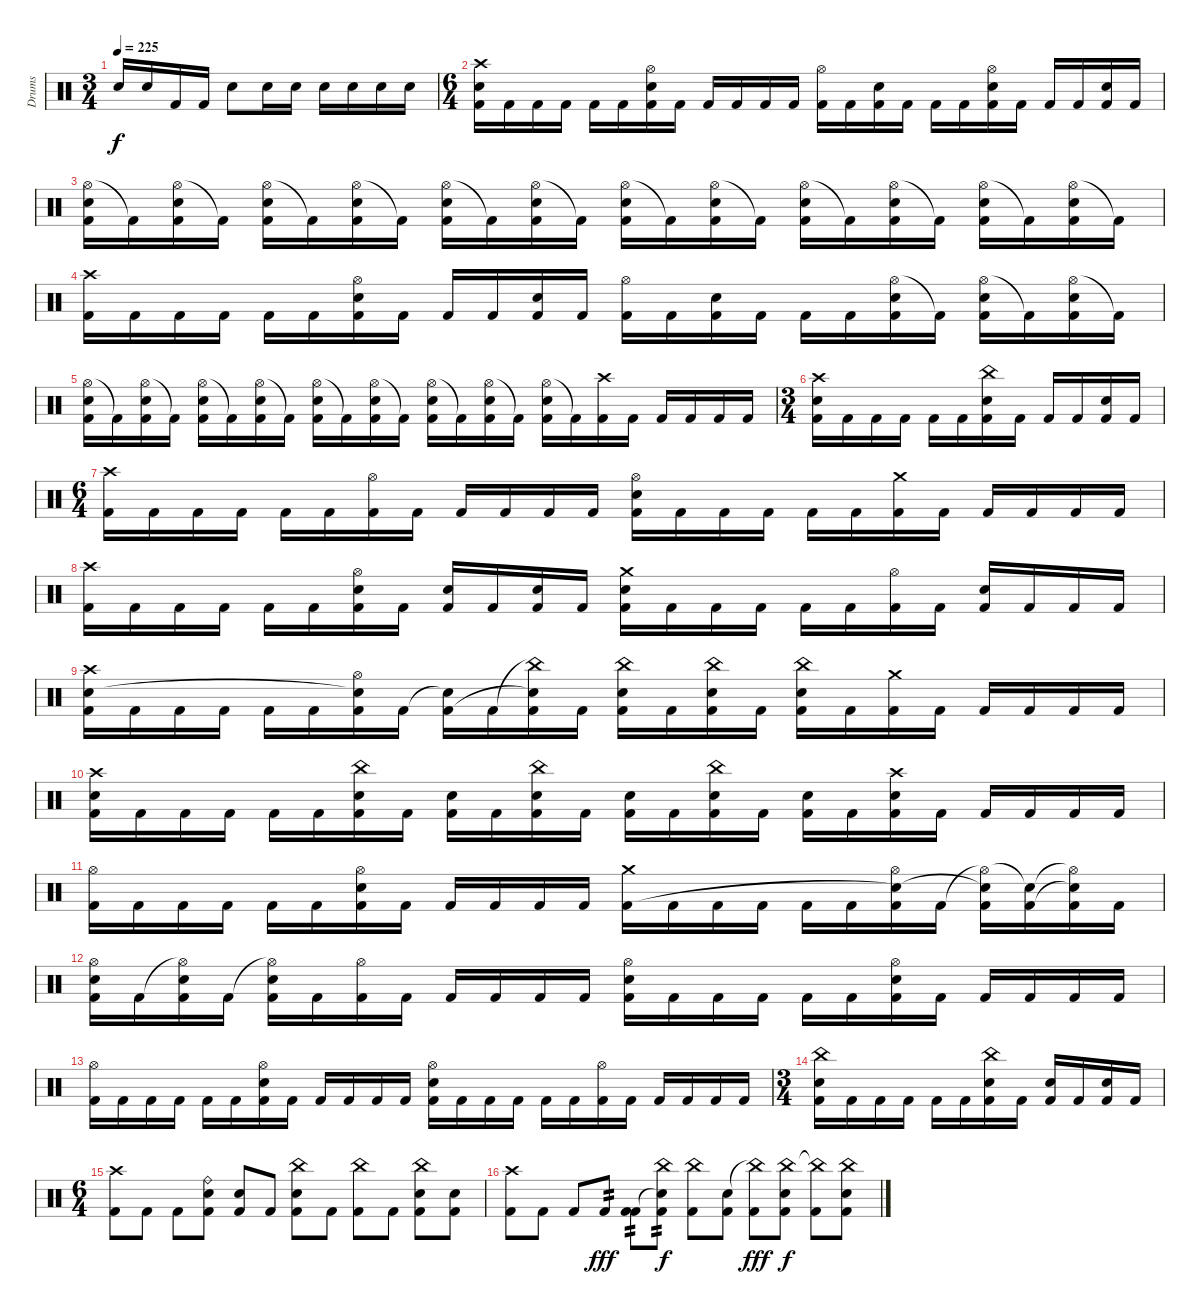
\track ("Drums" "Drums") {instrument percussion}
\staff {score}
\articulation defaults
\ts (3 4)
\tempo 225
\clef neutral
\ks c "Snare (hit) 2".16{dy f} "Snare (hit) 2".16 "Kick (hit) 2".16 "Kick (hit) 2".16 "Snare (hit) 2".8 "Snare (hit) 2".16 "Snare (hit) 2".16 "Snare (hit) 2".16 "Snare (hit) 2".16 "Snare (hit) 2".16 "Snare (hit) 2".16
|
\ts (6 4)
("Crash high (hit)" "Snare (hit) 2" "Kick (hit) 2").16 "Kick (hit) 2".16 "Kick (hit) 2".16 "Kick (hit) 2".16 "Kick (hit) 2".16 "Kick (hit) 2".16 ("Hi-Hat (open)" "Snare (hit) 2" "Kick (hit) 2").16 "Kick (hit) 2".16 "Kick (hit) 2".16 "Kick (hit) 2".16 "Kick (hit) 2".16 "Kick (hit) 2".16 ("Hi-Hat (open)" "Kick (hit) 2").16 "Kick (hit) 2".16 ("Snare (hit) 2" "Kick (hit) 2").16 "Kick (hit) 2".16 "Kick (hit) 2".16 "Kick (hit) 2".16 ("Hi-Hat (open)" "Snare (hit) 2" "Kick (hit) 2").16 "Kick (hit) 2".16 "Kick (hit) 2".16 "Kick (hit) 2".16 ("Snare (hit) 2" "Kick (hit) 2").16 "Kick (hit) 2".16 |
("Hi-Hat (open)" "Snare (hit) 2" "Kick (hit) 2").16 "Kick (hit) 2"{t}.16 ("Hi-Hat (open)" "Snare (hit) 2" "Kick (hit) 2").16 "Kick (hit) 2"{t}.16 ("Hi-Hat (open)" "Snare (hit) 2" "Kick (hit) 2").16 "Kick (hit) 2"{t}.16 ("Hi-Hat (open)" "Snare (hit) 2" "Kick (hit) 2").16 "Kick (hit) 2"{t}.16 ("Hi-Hat (open)" "Snare (hit) 2" "Kick (hit) 2").16 "Kick (hit) 2"{t}.16 ("Hi-Hat (open)" "Snare (hit) 2" "Kick (hit) 2").16 "Kick (hit) 2"{t}.16 ("Hi-Hat (open)" "Snare (hit) 2" "Kick (hit) 2").16 "Kick (hit) 2"{t}.16 ("Hi-Hat (open)" "Snare (hit) 2" "Kick (hit) 2").16 "Kick (hit) 2"{t}.16 ("Hi-Hat (open)" "Snare (hit) 2" "Kick (hit) 2").16 "Kick (hit) 2"{t}.16 ("Hi-Hat (open)" "Snare (hit) 2" "Kick (hit) 2").16 "Kick (hit) 2"{t}.16 ("Hi-Hat (open)" "Snare (hit) 2" "Kick (hit) 2").16 "Kick (hit) 2"{t}.16 ("Hi-Hat (open)" "Snare (hit) 2" "Kick (hit) 2").16 "Kick (hit) 2"{t}.16 |
("Crash high (hit)" "Kick (hit) 2").16 "Kick (hit) 2".16 "Kick (hit) 2".16 "Kick (hit) 2".16 "Kick (hit) 2".16 "Kick (hit) 2".16 ("Hi-Hat (open)" "Snare (hit) 2" "Kick (hit) 2").16 "Kick (hit) 2".16 "Kick (hit) 2".16 "Kick (hit) 2".16 ("Snare (hit) 2" "Kick (hit) 2").16 "Kick (hit) 2".16 ("Hi-Hat (open)" "Kick (hit) 2").16 "Kick (hit) 2".16 ("Snare (hit) 2" "Kick (hit) 2").16 "Kick (hit) 2".16 "Kick (hit) 2".16 "Kick (hit) 2".16 ("Hi-Hat (open)" "Snare (hit) 2" "Kick (hit) 2").16 "Kick (hit) 2"{t}.16 ("Hi-Hat (open)" "Snare (hit) 2" "Kick (hit) 2").16 "Kick (hit) 2"{t}.16 ("Hi-Hat (open)" "Snare (hit) 2" "Kick (hit) 2").16 "Kick (hit) 2"{t}.16 |
("Hi-Hat (open)" "Snare (hit) 2" "Kick (hit) 2").16 "Kick (hit) 2"{t}.16 ("Hi-Hat (open)" "Snare (hit) 2" "Kick (hit) 2").16 "Kick (hit) 2"{t}.16 ("Hi-Hat (open)" "Snare (hit) 2" "Kick (hit) 2").16 "Kick (hit) 2"{t}.16 ("Hi-Hat (open)" "Snare (hit) 2" "Kick (hit) 2").16 "Kick (hit) 2"{t}.16 ("Hi-Hat (open)" "Snare (hit) 2" "Kick (hit) 2").16 "Kick (hit) 2"{t}.16 ("Hi-Hat (open)" "Snare (hit) 2" "Kick (hit) 2").16 "Kick (hit) 2"{t}.16 ("Hi-Hat (open)" "Snare (hit) 2" "Kick (hit) 2").16 "Kick (hit) 2"{t}.16 ("Hi-Hat (open)" "Snare (hit) 2" "Kick (hit) 2").16 "Kick (hit) 2"{t}.16 ("Hi-Hat (open)" "Snare (hit) 2" "Kick (hit) 2").16 "Kick (hit) 2"{t}.16 ("Crash high (hit)" "Kick (hit) 2").16 "Kick (hit) 2".16 "Kick (hit) 2".16 "Kick (hit) 2".16 "Kick (hit) 2".16 "Kick (hit) 2".16 |
\ts (3 4)
("Crash high (hit)" "Snare (hit) 2" "Kick (hit) 2").16 "Kick (hit) 2".16 "Kick (hit) 2".16 "Kick (hit) 2".16 "Kick (hit) 2".16 "Kick (hit) 2".16 ("China (hit)" "Snare (hit) 2" "Kick (hit) 2").16 "Kick (hit) 2".16 "Kick (hit) 2".16 "Kick (hit) 2".16 ("Snare (hit) 2" "Kick (hit) 2").16 "Kick (hit) 2".16 |
\ts (6 4)
("Crash high (hit)" "Kick (hit) 2").16 "Kick (hit) 2".16 "Kick (hit) 2".16 "Kick (hit) 2".16 "Kick (hit) 2".16 "Kick (hit) 2".16 ("Hi-Hat (open)" "Kick (hit) 2").16 "Kick (hit) 2".16 "Kick (hit) 2".16 "Kick (hit) 2".16 "Kick (hit) 2".16 "Kick (hit) 2".16 ("Snare (hit) 2" "Hi-Hat (open)" "Kick (hit) 2").16 "Kick (hit) 2".16 "Kick (hit) 2".16 "Kick (hit) 2".16 "Kick (hit) 2".16 "Kick (hit) 2".16 ("Crash medium (hit)" "Kick (hit) 2").16 "Kick (hit) 2".16 "Kick (hit) 2".16 "Kick (hit) 2".16 "Kick (hit) 2".16 "Kick (hit) 2".16 |
("Crash high (hit)" "Kick (hit) 2").16 "Kick (hit) 2".16 "Kick (hit) 2".16 "Kick (hit) 2".16 "Kick (hit) 2".16 "Kick (hit) 2".16 ("Snare (hit) 2" "Hi-Hat (open)" "Kick (hit) 2").16 "Kick (hit) 2".16 ("Snare (hit) 2" "Kick (hit) 2").16 "Kick (hit) 2".16 ("Snare (hit) 2" "Kick (hit) 2").16 "Kick (hit) 2".16 ("Crash medium (hit)" "Snare (hit) 2" "Kick (hit) 2").16 "Kick (hit) 2".16 "Kick (hit) 2".16 "Kick (hit) 2".16 "Kick (hit) 2".16 "Kick (hit) 2".16 ("Hi-Hat (open)" "Kick (hit) 2").16 "Kick (hit) 2".16 ("Snare (hit) 2" "Kick (hit) 2").16 "Kick (hit) 2".16 "Kick (hit) 2".16 "Kick (hit) 2".16 |
("Crash high (hit)" "Snare (hit) 2" "Kick (hit) 2").16 "Kick (hit) 2".16 "Kick (hit) 2".16 "Kick (hit) 2".16 "Kick (hit) 2".16 "Kick (hit) 2".16 ("Hi-Hat (open)" "Snare (hit) 2"{t} "Kick (hit) 2").16 "Kick (hit) 2".16 ("Snare (hit) 2"{t} "Kick (hit) 2").16 "Kick (hit) 2".16 ("China (hit)"{t} "Snare (hit) 2"{t} "Kick (hit) 2").16 "Kick (hit) 2".16 ("China (hit)" "Snare (hit) 2" "Kick (hit) 2").16 "Kick (hit) 2".16 ("China (hit)" "Snare (hit) 2" "Kick (hit) 2").16 "Kick (hit) 2".16 ("China (hit)" "Snare (hit) 2" "Kick (hit) 2").16 "Kick (hit) 2".16 ("Crash medium (hit)" "Kick (hit) 2").16 "Kick (hit) 2".16 "Kick (hit) 2".16 "Kick (hit) 2".16 "Kick (hit) 2".16 "Kick (hit) 2".16 |
("Crash high (hit)" "Snare (hit) 2" "Kick (hit) 2").16 "Kick (hit) 2".16 "Kick (hit) 2".16 "Kick (hit) 2".16 "Kick (hit) 2".16 "Kick (hit) 2".16 ("China (hit)" "Snare (hit) 2" "Kick (hit) 2").16 "Kick (hit) 2".16 ("Snare (hit) 2" "Kick (hit) 2").16 "Kick (hit) 2".16 ("China (hit)" "Snare (hit) 2" "Kick (hit) 2").16 "Kick (hit) 2".16 ("Snare (hit) 2" "Kick (hit) 2").16 "Kick (hit) 2".16 ("China (hit)" "Snare (hit) 2" "Kick (hit) 2").16 "Kick (hit) 2".16 ("Snare (hit) 2" "Kick (hit) 2").16 "Kick (hit) 2".16 ("Crash high (hit)" "Snare (hit) 2" "Kick (hit) 2").16 "Kick (hit) 2".16 "Kick (hit) 2".16 "Kick (hit) 2".16 "Kick (hit) 2".16 "Kick (hit) 2".16 |
("Hi-Hat (open)" "Kick (hit) 2").16 "Kick (hit) 2".16 "Kick (hit) 2".16 "Kick (hit) 2".16 "Kick (hit) 2".16 "Kick (hit) 2".16 ("Hi-Hat (open)" "Snare (hit) 2" "Kick (hit) 2").16 "Kick (hit) 2".16 "Kick (hit) 2".16 "Kick (hit) 2".16 "Kick (hit) 2".16 "Kick (hit) 2".16 ("Crash medium (hit)" "Kick (hit) 2").16 "Kick (hit) 2".16 "Kick (hit) 2".16 "Kick (hit) 2".16 "Kick (hit) 2".16 "Kick (hit) 2".16 ("Hi-Hat (open)" "Snare (hit) 2"{t} "Kick (hit) 2").16 "Kick (hit) 2".16 ("Hi-Hat (open)"{t} "Snare (hit) 2"{t} "Kick (hit) 2").16 ("Snare (hit)"{t} "Kick (hit) 2").16 ("Hi-Hat (open)"{t} "Snare (hit) 2"{t} "Kick (hit) 2").16 "Kick (hit) 2".16 |
("Hi-Hat (open)" "Snare (hit) 2" "Kick (hit) 2").16 "Kick (hit) 2".16 ("Hi-Hat (open)"{t} "Snare (hit) 2" "Kick (hit) 2").16 "Kick (hit) 2".16 ("Hi-Hat (open)"{t} "Snare (hit) 2" "Kick (hit) 2").16 "Kick (hit) 2".16 ("Hi-Hat (open)" "Kick (hit) 2").16 "Kick (hit) 2".16 "Kick (hit) 2".16 "Kick (hit) 2".16 "Kick (hit) 2".16 "Kick (hit) 2".16 ("Hi-Hat (open)" "Snare (hit) 2" "Kick (hit) 2").16 "Kick (hit) 2".16 "Kick (hit) 2".16 "Kick (hit) 2".16 "Kick (hit) 2".16 "Kick (hit) 2".16 ("Hi-Hat (open)" "Snare (hit) 2" "Kick (hit) 2").16 "Kick (hit) 2".16 "Kick (hit) 2".16 "Kick (hit) 2".16 "Kick (hit) 2".16 "Kick (hit) 2".16 |
("Hi-Hat (open)" "Kick (hit) 2").16 "Kick (hit) 2".16 "Kick (hit) 2".16 "Kick (hit) 2".16 "Kick (hit) 2".16 "Kick (hit) 2".16 ("Hi-Hat (open)" "Snare (hit) 2" "Kick (hit) 2").16 "Kick (hit) 2".16 "Kick (hit) 2".16 "Kick (hit) 2".16 "Kick (hit) 2".16 "Kick (hit) 2".16 ("Hi-Hat (open)" "Snare (hit) 2" "Kick (hit) 2").16 "Kick (hit) 2".16 "Kick (hit) 2".16 "Kick (hit) 2".16 "Kick (hit) 2".16 "Kick (hit) 2".16 ("Hi-Hat (open)" "Kick (hit) 2").16 "Kick (hit) 2".16 "Kick (hit) 2".16 "Kick (hit) 2".16 "Kick (hit) 2".16 "Kick (hit) 2".16 |
\ts (3 4)
("China (hit)" "Snare (hit) 2" "Kick (hit) 2").16 "Kick (hit) 2".16 "Kick (hit) 2".16 "Kick (hit) 2".16 "Kick (hit) 2".16 "Kick (hit) 2".16 ("China (hit)" "Snare (hit) 2" "Kick (hit) 2").16 "Kick (hit) 2".16 ("Snare (hit) 2" "Kick (hit) 2").16 "Kick (hit) 2".16 ("Snare (hit) 2" "Kick (hit) 2").16 "Kick (hit) 2".16 |
\ts (6 4)
("Crash high (hit)" "Kick (hit) 2").8 "Kick (hit) 2".8 "Kick (hit) 2".8 ("Ride (bell)" "Snare (hit)" "Kick (hit) 2").8 ("Snare (hit) 2" "Kick (hit) 2").8 "Kick (hit) 2".8 ("China (hit)" "Snare (hit) 2" "Kick (hit) 2").8 "Kick (hit) 2".8 ("China (hit)" "Kick (hit) 2").8 "Kick (hit) 2".8 ("China (hit)" "Snare (hit) 2" "Kick (hit) 2").8 ("Snare (hit) 2" "Kick (hit) 2").8 |
("Crash high (hit)" "Kick (hit) 2").8 "Kick (hit) 2".8 "Kick (hit) 2".8 "Kick (hit) 2".8{tp 2 dy fff} ("Kick (hit) 2" "Kick (hit) 2").8{tp 2} ("China (hit)" "Snare (hit) 2"{t} "Kick (hit) 2").8{tp 2 dy f} ("China (hit)" "Kick (hit) 2").8 ("Snare (hit) 2" "Kick (hit) 2").8 ("China (hit)"{t} "Kick (hit) 2").8{dy fff} ("China (hit)" "Snare (hit) 2" "Kick (hit) 2").8{dy f} ("China (hit)"{t} "Kick (hit) 2").8 ("China (hit)" "Snare (hit) 2" "Kick (hit) 2").8
